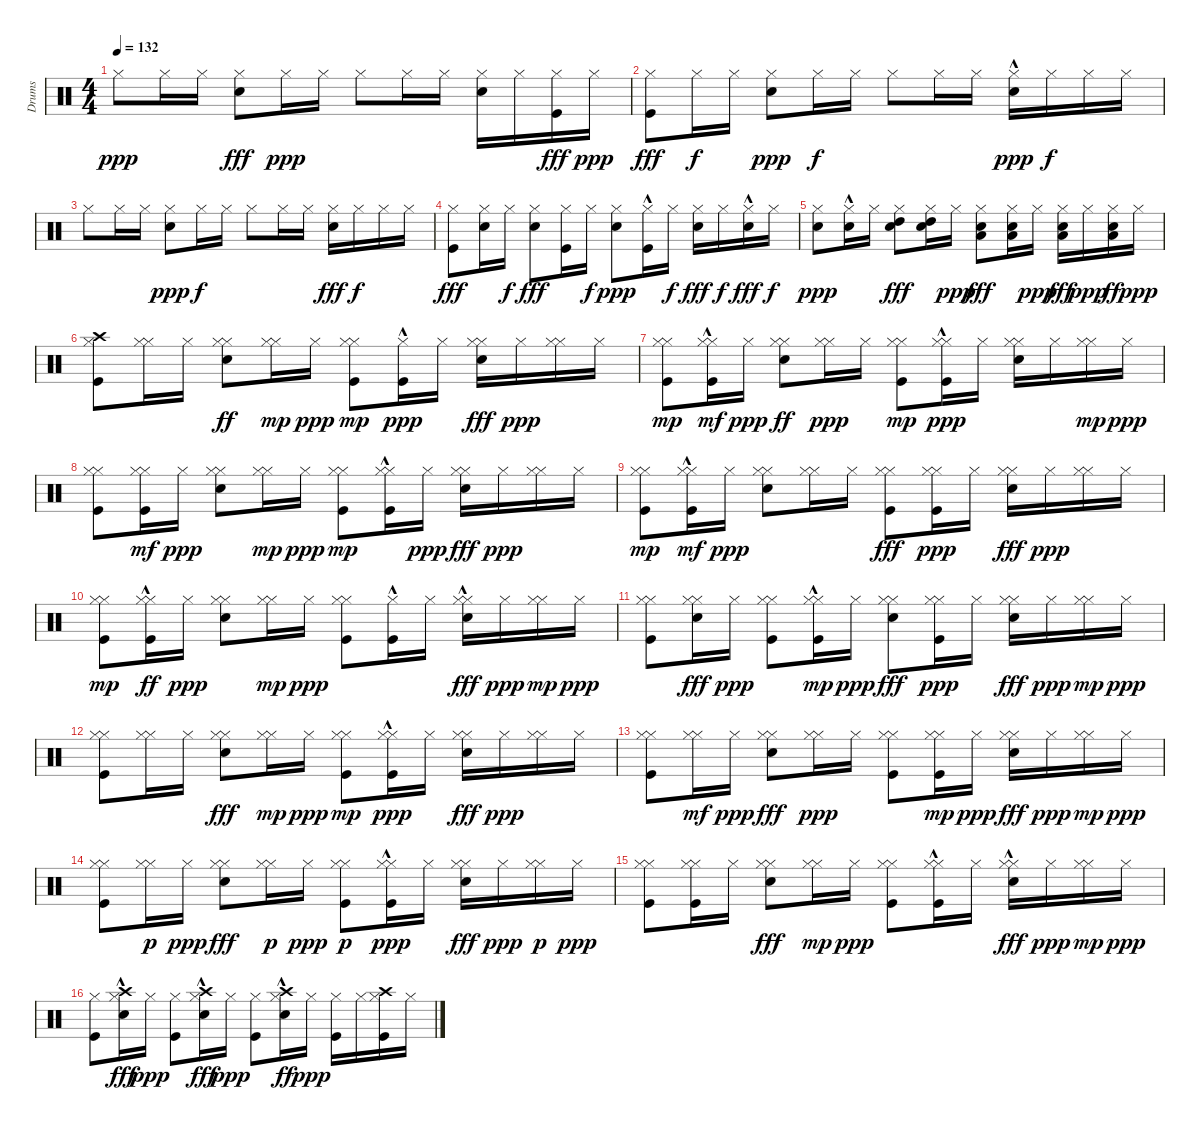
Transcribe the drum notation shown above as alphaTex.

\track ("Drums" "Drums") {instrument percussion}
\staff {score}
\articulation defaults
\ts (4 4)
\tempo 132
\clef neutral
\ks c "Hi-Hat (closed)".8{dy ppp} "Hi-Hat (closed)".16 "Hi-Hat (closed)".16
("Hi-Hat (closed)" "Snare (hit) 2").8{dy fff} "Hi-Hat (closed)".16{dy ppp} "Hi-Hat (closed)".16 "Hi-Hat (closed)".8 "Hi-Hat (closed)".16 "Hi-Hat (closed)".16 ("Snare (hit) 2" "Hi-Hat (closed)").16 "Hi-Hat (closed)".16 ("Hi-Hat (closed)" "Kick (hit)").16{dy fff} "Hi-Hat (closed)".16{dy ppp} |
("Kick (hit)" "Hi-Hat (closed)").8{dy fff} "Hi-Hat (closed)".16{dy f} "Hi-Hat (closed)".16 ("Snare (hit) 2" "Hi-Hat (closed)").8{dy ppp} "Hi-Hat (closed)".16{dy f} "Hi-Hat (closed)".16 "Hi-Hat (closed)".8 "Hi-Hat (closed)".16 "Hi-Hat (closed)".16 ("Snare (hit) 2"{hac} "Hi-Hat (closed)").16{dy ppp} "Hi-Hat (closed)".16{dy f} "Hi-Hat (closed)".16 "Hi-Hat (closed)".16 |
"Hi-Hat (closed)".8 "Hi-Hat (closed)".16 "Hi-Hat (closed)".16 ("Snare (hit) 2" "Hi-Hat (closed)").8{dy ppp} "Hi-Hat (closed)".16{dy f} "Hi-Hat (closed)".16 "Hi-Hat (closed)".8 "Hi-Hat (closed)".16 "Hi-Hat (closed)".16 ("Hi-Hat (closed)" "Snare (hit) 2").16{dy fff} "Hi-Hat (closed)".16{dy f} "Hi-Hat (closed)".16 "Hi-Hat (closed)".16 |
("Kick (hit)" "Hi-Hat (closed)").8{dy fff} ("Hi-Hat (closed)" "Snare (hit) 2").16 "Hi-Hat (closed)".16{dy f} ("Hi-Hat (closed)" "Snare (hit) 2").8{dy fff} ("Kick (hit)" "Hi-Hat (closed)").16 "Hi-Hat (closed)".16{dy f} ("Snare (hit) 2" "Hi-Hat (closed)").8{dy ppp} ("Kick (hit)"{hac} "Hi-Hat (closed)").16 "Hi-Hat (closed)".16{dy f} ("Hi-Hat (closed)" "Snare (hit) 2").16{dy fff} "Hi-Hat (closed)".16{dy f} ("Hi-Hat (closed)" "Snare (hit) 2"{hac}).16{dy fff} "Hi-Hat (closed)".16{dy f} |
("Snare (hit) 2" "Hi-Hat (closed)").8{dy ppp} ("Snare (hit) 2"{hac} "Hi-Hat (closed)").16 "Hi-Hat (closed)".16 ("Snare (hit) 2" "Hi-Hat (closed)" "High Tom (hit)").8{dy fff} ("Hi-Hat (closed)" "High Tom (hit)" "Snare (hit) 2").16 "Hi-Hat (closed)".16{dy ppp} ("Low Tom (hit)" "Hi-Hat (closed)" "Snare (hit) 2").8{dy fff} ("Low Tom (hit)" "Hi-Hat (closed)" "Snare (hit) 2").16 "Hi-Hat (closed)".16{dy ppp} ("Low Floor Tom (hit)" "Hi-Hat (closed)" "Snare (hit) 2").16{dy fff} "Hi-Hat (closed)".16{dy ppp} ("Hi-Hat (closed)" "Snare (hit) 2" "Low Floor Tom (hit)").16{dy ff} "Hi-Hat (closed)".16{dy ppp} |
("Kick (hit)" "Crash high (hit)" "Hi-Hat (closed)").8 ("Hi-Hat (closed)" "Hi-Hat (closed)").16 "Hi-Hat (closed)".16 ("Snare (hit) 2" "Hi-Hat (closed)" "Hi-Hat (closed)").8{dy ff} ("Hi-Hat (closed)" "Hi-Hat (closed)").16{dy mp} "Hi-Hat (closed)".16{dy ppp} ("Kick (hit)" "Hi-Hat (closed)" "Hi-Hat (closed)").8{dy mp} ("Kick (hit)"{hac} "Hi-Hat (closed)").16{dy ppp} "Hi-Hat (closed)".16 ("Hi-Hat (closed)" "Hi-Hat (closed)" "Snare (hit) 2").16{dy fff} "Hi-Hat (closed)".16{dy ppp} ("Hi-Hat (closed)" "Hi-Hat (closed)").16 "Hi-Hat (closed)".16 |
("Kick (hit)" "Hi-Hat (closed)" "Hi-Hat (closed)").8{dy mp} ("Kick (hit)"{hac} "Hi-Hat (closed)" "Hi-Hat (closed)").16{dy mf} "Hi-Hat (closed)".16{dy ppp} ("Hi-Hat (closed)" "Snare (hit) 2" "Hi-Hat (closed)").8{dy ff} ("Hi-Hat (closed)" "Hi-Hat (closed)").16{dy ppp} "Hi-Hat (closed)".16 ("Kick (hit)" "Hi-Hat (closed)" "Hi-Hat (closed)").8{dy mp} ("Kick (hit)"{hac} "Hi-Hat (closed)" "Hi-Hat (closed)").16{dy ppp} "Hi-Hat (closed)".16 ("Hi-Hat (closed)" "Snare (hit) 2" "Hi-Hat (closed)").16 "Hi-Hat (closed)".16 ("Hi-Hat (closed)" "Hi-Hat (closed)").16{dy mp} "Hi-Hat (closed)".16{dy ppp} |
("Kick (hit)" "Hi-Hat (closed)" "Hi-Hat (closed)").8 ("Kick (hit)" "Hi-Hat (closed)" "Hi-Hat (closed)").16{dy mf} "Hi-Hat (closed)".16{dy ppp} ("Hi-Hat (closed)" "Snare (hit) 2" "Hi-Hat (closed)").8 ("Hi-Hat (closed)" "Hi-Hat (closed)").16{dy mp} "Hi-Hat (closed)".16{dy ppp} ("Kick (hit)" "Hi-Hat (closed)" "Hi-Hat (closed)").8{dy mp} ("Kick (hit)"{hac} "Hi-Hat (closed)" "Hi-Hat (closed)").16 "Hi-Hat (closed)".16{dy ppp} ("Hi-Hat (closed)" "Hi-Hat (closed)" "Snare (hit) 2").16{dy fff} "Hi-Hat (closed)".16{dy ppp} ("Hi-Hat (closed)" "Hi-Hat (closed)").16 "Hi-Hat (closed)".16 |
("Kick (hit)" "Hi-Hat (closed)" "Hi-Hat (closed)").8{dy mp} ("Kick (hit)"{hac} "Hi-Hat (closed)" "Hi-Hat (closed)").16{dy mf} "Hi-Hat (closed)".16{dy ppp} ("Snare (hit) 2" "Hi-Hat (closed)" "Hi-Hat (closed)").8 ("Hi-Hat (closed)" "Hi-Hat (closed)").16 "Hi-Hat (closed)".16 ("Hi-Hat (closed)" "Hi-Hat (closed)" "Kick (hit)").8{dy fff} ("Kick (hit)" "Hi-Hat (closed)" "Hi-Hat (closed)").16{dy ppp} "Hi-Hat (closed)".16 ("Hi-Hat (closed)" "Hi-Hat (closed)" "Snare (hit) 2").16{dy fff} "Hi-Hat (closed)".16{dy ppp} ("Hi-Hat (closed)" "Hi-Hat (closed)").16 "Hi-Hat (closed)".16 |
("Kick (hit)" "Hi-Hat (closed)" "Hi-Hat (closed)").8{dy mp} ("Hi-Hat (closed)" "Hi-Hat (closed)" "Kick (hit)"{hac}).16{dy ff} "Hi-Hat (closed)".16{dy ppp} ("Hi-Hat (closed)" "Snare (hit) 2" "Hi-Hat (closed)").8 ("Hi-Hat (closed)" "Hi-Hat (closed)").16{dy mp} "Hi-Hat (closed)".16{dy ppp} ("Kick (hit)" "Hi-Hat (closed)" "Hi-Hat (closed)").8 ("Kick (hit)"{hac} "Hi-Hat (closed)").16 "Hi-Hat (closed)".16 ("Hi-Hat (closed)" "Hi-Hat (closed)" "Snare (hit) 2"{hac}).16{dy fff} "Hi-Hat (closed)".16{dy ppp} ("Hi-Hat (closed)" "Hi-Hat (closed)").16{dy mp} "Hi-Hat (closed)".16{dy ppp} |
("Kick (hit)" "Hi-Hat (closed)" "Hi-Hat (closed)").8 ("Hi-Hat (closed)" "Hi-Hat (closed)" "Snare (hit) 2").16{dy fff} "Hi-Hat (closed)".16{dy ppp} ("Kick (hit)" "Hi-Hat (closed)" "Hi-Hat (closed)").8 ("Kick (hit)"{hac} "Hi-Hat (closed)" "Hi-Hat (closed)").16{dy mp} "Hi-Hat (closed)".16{dy ppp} ("Hi-Hat (closed)" "Hi-Hat (closed)" "Snare (hit) 2").8{dy fff} ("Kick (hit)" "Hi-Hat (closed)" "Hi-Hat (closed)").16{dy ppp} "Hi-Hat (closed)".16 ("Hi-Hat (closed)" "Hi-Hat (closed)" "Snare (hit) 2").16{dy fff} "Hi-Hat (closed)".16{dy ppp} ("Hi-Hat (closed)" "Hi-Hat (closed)").16{dy mp} "Hi-Hat (closed)".16{dy ppp} |
("Kick (hit)" "Hi-Hat (closed)" "Hi-Hat (closed)").8 ("Hi-Hat (closed)" "Hi-Hat (closed)").16 "Hi-Hat (closed)".16 ("Hi-Hat (closed)" "Hi-Hat (closed)" "Snare (hit) 2").8{dy fff} ("Hi-Hat (closed)" "Hi-Hat (closed)").16{dy mp} "Hi-Hat (closed)".16{dy ppp} ("Kick (hit)" "Hi-Hat (closed)" "Hi-Hat (closed)").8{dy mp} ("Kick (hit)"{hac} "Hi-Hat (closed)" "Hi-Hat (closed)").16{dy ppp} "Hi-Hat (closed)".16 ("Hi-Hat (closed)" "Hi-Hat (closed)" "Snare (hit) 2").16{dy fff} "Hi-Hat (closed)".16{dy ppp} ("Hi-Hat (closed)" "Hi-Hat (closed)").16 "Hi-Hat (closed)".16 |
("Kick (hit)" "Hi-Hat (closed)" "Hi-Hat (closed)").8 ("Hi-Hat (closed)" "Hi-Hat (closed)").16{dy mf} "Hi-Hat (closed)".16{dy ppp} ("Hi-Hat (closed)" "Hi-Hat (closed)" "Snare (hit) 2").8{dy fff} ("Hi-Hat (closed)" "Hi-Hat (closed)").16{dy ppp} "Hi-Hat (closed)".16 ("Kick (hit)" "Hi-Hat (closed)" "Hi-Hat (closed)").8 ("Kick (hit)" "Hi-Hat (closed)" "Hi-Hat (closed)").16{dy mp} "Hi-Hat (closed)".16{dy ppp} ("Hi-Hat (closed)" "Hi-Hat (closed)" "Snare (hit) 2").16{dy fff} "Hi-Hat (closed)".16{dy ppp} ("Hi-Hat (closed)" "Hi-Hat (closed)").16{dy mp} "Hi-Hat (closed)".16{dy ppp} |
("Kick (hit)" "Hi-Hat (closed)" "Hi-Hat (closed)").8 ("Hi-Hat (closed)" "Hi-Hat (closed)").16{dy p} "Hi-Hat (closed)".16{dy ppp} ("Hi-Hat (closed)" "Hi-Hat (closed)" "Snare (hit) 2").8{dy fff} ("Hi-Hat (closed)" "Hi-Hat (closed)").16{dy p} "Hi-Hat (closed)".16{dy ppp} ("Kick (hit)" "Hi-Hat (closed)" "Hi-Hat (closed)").8{dy p} ("Hi-Hat (closed)" "Kick (hit)"{hac} "Hi-Hat (closed)").16{dy ppp} "Hi-Hat (closed)".16 ("Hi-Hat (closed)" "Hi-Hat (closed)" "Snare (hit) 2").16{dy fff} "Hi-Hat (closed)".16{dy ppp} ("Hi-Hat (closed)" "Hi-Hat (closed)").16{dy p} "Hi-Hat (closed)".16{dy ppp} |
("Kick (hit)" "Hi-Hat (closed)" "Hi-Hat (closed)").8 ("Kick (hit)" "Hi-Hat (closed)" "Hi-Hat (closed)").16 "Hi-Hat (closed)".16 ("Hi-Hat (closed)" "Hi-Hat (closed)" "Snare (hit) 2").8{dy fff} ("Hi-Hat (closed)" "Hi-Hat (closed)").16{dy mp} "Hi-Hat (closed)".16{dy ppp} ("Kick (hit)" "Hi-Hat (closed)" "Hi-Hat (closed)").8 ("Kick (hit)"{hac} "Hi-Hat (closed)" "Hi-Hat (closed)").16 "Hi-Hat (closed)".16 ("Hi-Hat (closed)" "Hi-Hat (closed)" "Snare (hit) 2"{hac}).16{dy fff} "Hi-Hat (closed)".16{dy ppp} ("Hi-Hat (closed)" "Hi-Hat (closed)").16{dy mp} "Hi-Hat (closed)".16{dy ppp} |
("Kick (hit)" "Hi-Hat (closed)").8 ("Hi-Hat (closed)" "Crash high (hit)" "Snare (hit) 2"{hac}).16{dy fff} "Hi-Hat (closed)".16{dy ppp} ("Kick (hit)" "Hi-Hat (closed)").8 ("Crash high (hit)" "Hi-Hat (closed)" "Snare (hit) 2"{hac}).16{dy fff} "Hi-Hat (closed)".16{dy ppp} ("Kick (hit)" "Hi-Hat (closed)").8 ("Hi-Hat (closed)" "Crash high (hit)" "Snare (hit) 2"{hac}).16{dy ff} "Hi-Hat (closed)".16{dy ppp} ("Kick (hit)" "Hi-Hat (closed)").16 "Hi-Hat (closed)".16 ("Kick (hit)" "Crash high (hit)" "Hi-Hat (closed)").16 "Hi-Hat (closed)".16
